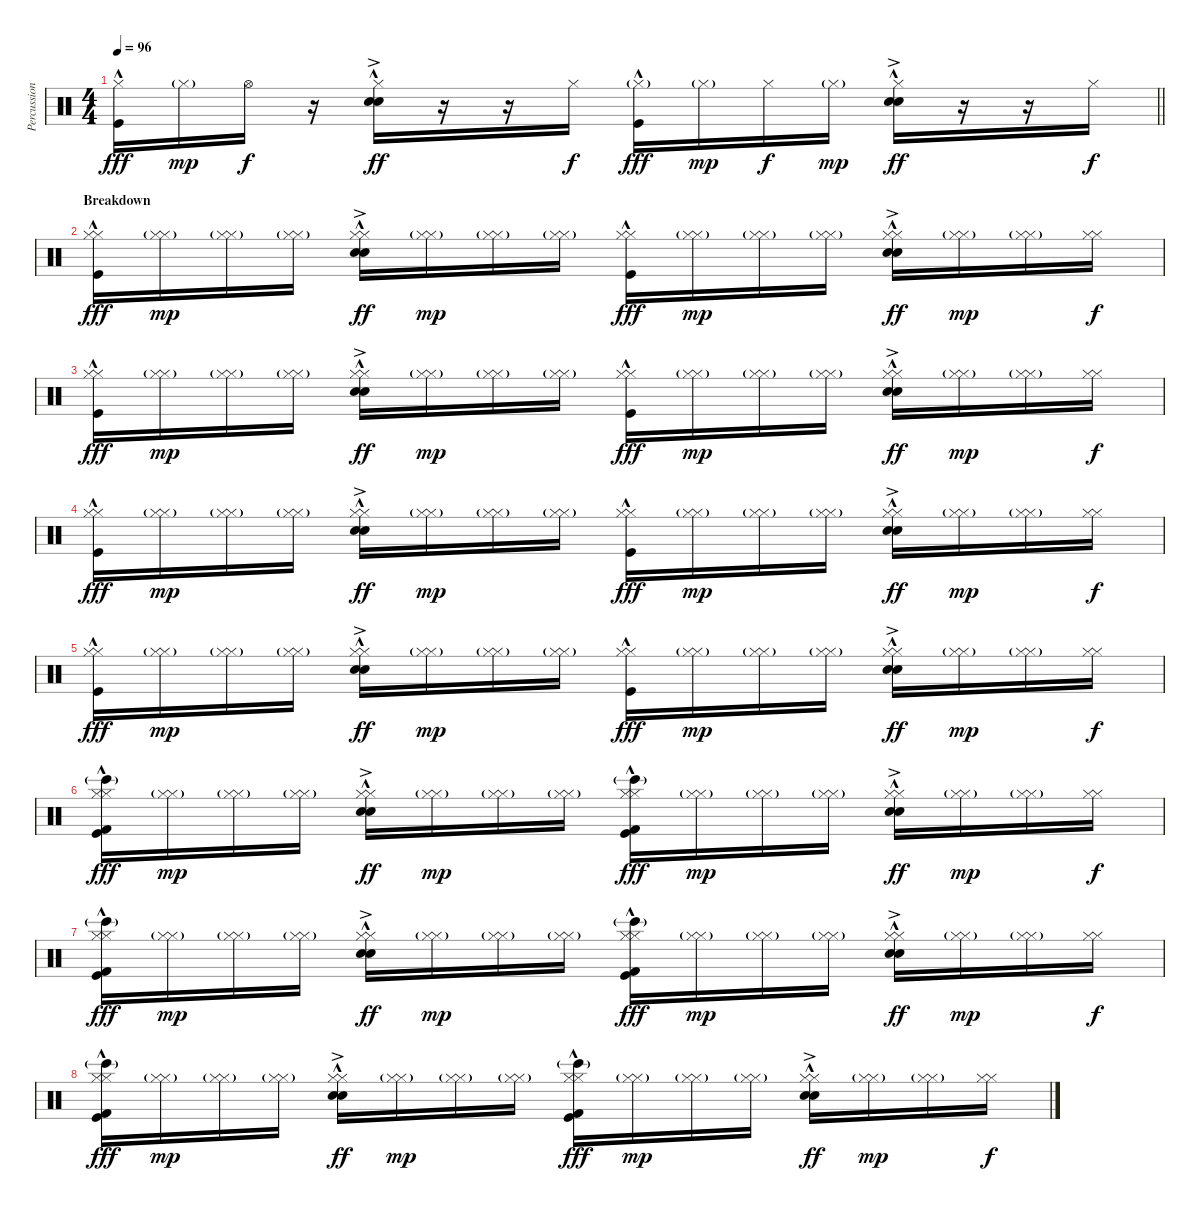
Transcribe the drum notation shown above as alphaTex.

\track ("Percussion" "Percussion") {instrument percussion}
\staff {score}
\articulation defaults
\ts (4 4)
\tempo 96
\clef neutral
\barLineRight lightlight
\ks c
("Hi-Hat (closed)" "Kick (hit)"{hac}).16{dy fff} "Hi-Hat (closed)"{g}.16{dy mp} "Hi-Hat (open)".16{dy f} r.16 ("Hi-Hat (closed)" "Hand Clap (hit)"{hac} "Snare (hit) 2"{ac}).16{dy ff} r.16 r.16 "Hi-Hat (closed)".16{dy f} ("Hi-Hat (closed)"{g} "Kick (hit)"{hac}).16{dy fff} "Hi-Hat (closed)"{g}.16{dy mp} "Hi-Hat (closed)".16{dy f} "Hi-Hat (closed)"{g}.16{dy mp} ("Hi-Hat (closed)" "Hand Clap (hit)"{hac} "Snare (hit) 2"{ac}).16{dy ff} r.16 r.16 "Hi-Hat (closed)".16{dy f} |
\section ("" "Breakdown")
("Hi-Hat (closed)" "Hi-Hat (closed)" "Kick (hit)"{hac}).16{dy fff} ("Hi-Hat (closed)" "Hi-Hat (closed)"{g}).16{dy mp} ("Hi-Hat (closed)" "Hi-Hat (closed)"{g}).16 ("Hi-Hat (closed)" "Hi-Hat (closed)"{g}).16 ("Hi-Hat (closed)" "Hi-Hat (closed)" "Hand Clap (hit)"{hac} "Snare (hit) 2"{ac}).16{dy ff} ("Hi-Hat (closed)" "Hi-Hat (closed)"{g}).16{dy mp} ("Hi-Hat (closed)" "Hi-Hat (closed)"{g}).16 ("Hi-Hat (closed)" "Hi-Hat (closed)"{g}).16 ("Hi-Hat (closed)" "Hi-Hat (closed)" "Kick (hit)"{hac}).16{dy fff} ("Hi-Hat (closed)" "Hi-Hat (closed)"{g}).16{dy mp} ("Hi-Hat (closed)" "Hi-Hat (closed)"{g}).16 ("Hi-Hat (closed)" "Hi-Hat (closed)"{g}).16 ("Hi-Hat (closed)" "Hi-Hat (closed)" "Hand Clap (hit)"{hac} "Snare (hit) 2"{ac}).16{dy ff} ("Hi-Hat (closed)" "Hi-Hat (closed)"{g}).16{dy mp} ("Hi-Hat (closed)" "Hi-Hat (closed)"{g}).16 ("Hi-Hat (closed)" "Hi-Hat (closed)").16{dy f} |
("Hi-Hat (closed)" "Hi-Hat (closed)" "Kick (hit)"{hac}).16{dy fff} ("Hi-Hat (closed)" "Hi-Hat (closed)"{g}).16{dy mp} ("Hi-Hat (closed)" "Hi-Hat (closed)"{g}).16 ("Hi-Hat (closed)" "Hi-Hat (closed)"{g}).16 ("Hi-Hat (closed)" "Hi-Hat (closed)" "Hand Clap (hit)"{hac} "Snare (hit) 2"{ac}).16{dy ff} ("Hi-Hat (closed)" "Hi-Hat (closed)"{g}).16{dy mp} ("Hi-Hat (closed)" "Hi-Hat (closed)"{g}).16 ("Hi-Hat (closed)" "Hi-Hat (closed)"{g}).16 ("Hi-Hat (closed)" "Hi-Hat (closed)" "Kick (hit)"{hac}).16{dy fff} ("Hi-Hat (closed)" "Hi-Hat (closed)"{g}).16{dy mp} ("Hi-Hat (closed)" "Hi-Hat (closed)"{g}).16 ("Hi-Hat (closed)" "Hi-Hat (closed)"{g}).16 ("Hi-Hat (closed)" "Hi-Hat (closed)" "Hand Clap (hit)"{hac} "Snare (hit) 2"{ac}).16{dy ff} ("Hi-Hat (closed)" "Hi-Hat (closed)"{g}).16{dy mp} ("Hi-Hat (closed)" "Hi-Hat (closed)"{g}).16 ("Hi-Hat (closed)" "Hi-Hat (closed)").16{dy f} |
("Hi-Hat (closed)" "Hi-Hat (closed)" "Kick (hit)"{hac}).16{dy fff} ("Hi-Hat (closed)" "Hi-Hat (closed)"{g}).16{dy mp} ("Hi-Hat (closed)" "Hi-Hat (closed)"{g}).16 ("Hi-Hat (closed)" "Hi-Hat (closed)"{g}).16 ("Hi-Hat (closed)" "Hi-Hat (closed)" "Hand Clap (hit)"{hac} "Snare (hit) 2"{ac}).16{dy ff} ("Hi-Hat (closed)" "Hi-Hat (closed)"{g}).16{dy mp} ("Hi-Hat (closed)" "Hi-Hat (closed)"{g}).16 ("Hi-Hat (closed)" "Hi-Hat (closed)"{g}).16 ("Hi-Hat (closed)" "Hi-Hat (closed)" "Kick (hit)"{hac}).16{dy fff} ("Hi-Hat (closed)" "Hi-Hat (closed)"{g}).16{dy mp} ("Hi-Hat (closed)" "Hi-Hat (closed)"{g}).16 ("Hi-Hat (closed)" "Hi-Hat (closed)"{g}).16 ("Hi-Hat (closed)" "Hi-Hat (closed)" "Hand Clap (hit)"{hac} "Snare (hit) 2"{ac}).16{dy ff} ("Hi-Hat (closed)" "Hi-Hat (closed)"{g}).16{dy mp} ("Hi-Hat (closed)" "Hi-Hat (closed)"{g}).16 ("Hi-Hat (closed)" "Hi-Hat (closed)").16{dy f} |
("Hi-Hat (closed)" "Hi-Hat (closed)" "Kick (hit)"{hac}).16{dy fff} ("Hi-Hat (closed)" "Hi-Hat (closed)"{g}).16{dy mp} ("Hi-Hat (closed)" "Hi-Hat (closed)"{g}).16 ("Hi-Hat (closed)" "Hi-Hat (closed)"{g}).16 ("Hi-Hat (closed)" "Hi-Hat (closed)" "Hand Clap (hit)"{hac} "Snare (hit) 2"{ac}).16{dy ff} ("Hi-Hat (closed)" "Hi-Hat (closed)"{g}).16{dy mp} ("Hi-Hat (closed)" "Hi-Hat (closed)"{g}).16 ("Hi-Hat (closed)" "Hi-Hat (closed)"{g}).16 ("Hi-Hat (closed)" "Hi-Hat (closed)" "Kick (hit)"{hac}).16{dy fff} ("Hi-Hat (closed)" "Hi-Hat (closed)"{g}).16{dy mp} ("Hi-Hat (closed)" "Hi-Hat (closed)"{g}).16 ("Hi-Hat (closed)" "Hi-Hat (closed)"{g}).16 ("Hi-Hat (closed)" "Hi-Hat (closed)" "Hand Clap (hit)"{hac} "Snare (hit) 2"{ac}).16{dy ff} ("Hi-Hat (closed)" "Hi-Hat (closed)"{g}).16{dy mp} ("Hi-Hat (closed)" "Hi-Hat (closed)"{g}).16 ("Hi-Hat (closed)" "Hi-Hat (closed)").16{dy f} |
("Hi-Hat (closed)" "Hi-Hat (closed)" "Bongo High (hit)"{g} "Kick (hit) 2"{hac} "Kick (hit)"{hac}).16{dy fff} ("Hi-Hat (closed)" "Hi-Hat (closed)"{g}).16{dy mp} ("Hi-Hat (closed)" "Hi-Hat (closed)"{g}).16 ("Hi-Hat (closed)" "Hi-Hat (closed)"{g}).16 ("Hi-Hat (closed)" "Hi-Hat (closed)" "Hand Clap (hit)"{hac} "Snare (hit) 2"{ac}).16{dy ff} ("Hi-Hat (closed)" "Hi-Hat (closed)"{g}).16{dy mp} ("Hi-Hat (closed)" "Hi-Hat (closed)"{g}).16 ("Hi-Hat (closed)" "Hi-Hat (closed)"{g}).16 ("Hi-Hat (closed)" "Hi-Hat (closed)" "Bongo High (hit)"{g} "Kick (hit) 2"{hac} "Kick (hit)"{hac}).16{dy fff} ("Hi-Hat (closed)" "Hi-Hat (closed)"{g}).16{dy mp} ("Hi-Hat (closed)" "Hi-Hat (closed)"{g}).16 ("Hi-Hat (closed)" "Hi-Hat (closed)"{g}).16 ("Hi-Hat (closed)" "Hi-Hat (closed)" "Hand Clap (hit)"{hac} "Snare (hit) 2"{ac}).16{dy ff} ("Hi-Hat (closed)" "Hi-Hat (closed)"{g}).16{dy mp} ("Hi-Hat (closed)" "Hi-Hat (closed)"{g}).16 ("Hi-Hat (closed)" "Hi-Hat (closed)").16{dy f} |
("Hi-Hat (closed)" "Hi-Hat (closed)" "Bongo High (hit)"{g} "Kick (hit) 2"{hac} "Kick (hit)"{hac}).16{dy fff} ("Hi-Hat (closed)" "Hi-Hat (closed)"{g}).16{dy mp} ("Hi-Hat (closed)" "Hi-Hat (closed)"{g}).16 ("Hi-Hat (closed)" "Hi-Hat (closed)"{g}).16 ("Hi-Hat (closed)" "Hi-Hat (closed)" "Hand Clap (hit)"{hac} "Snare (hit) 2"{ac}).16{dy ff} ("Hi-Hat (closed)" "Hi-Hat (closed)"{g}).16{dy mp} ("Hi-Hat (closed)" "Hi-Hat (closed)"{g}).16 ("Hi-Hat (closed)" "Hi-Hat (closed)"{g}).16 ("Hi-Hat (closed)" "Hi-Hat (closed)" "Bongo High (hit)"{g} "Kick (hit) 2"{hac} "Kick (hit)"{hac}).16{dy fff} ("Hi-Hat (closed)" "Hi-Hat (closed)"{g}).16{dy mp} ("Hi-Hat (closed)" "Hi-Hat (closed)"{g}).16 ("Hi-Hat (closed)" "Hi-Hat (closed)"{g}).16 ("Hi-Hat (closed)" "Hi-Hat (closed)" "Hand Clap (hit)"{hac} "Snare (hit) 2"{ac}).16{dy ff} ("Hi-Hat (closed)" "Hi-Hat (closed)"{g}).16{dy mp} ("Hi-Hat (closed)" "Hi-Hat (closed)"{g}).16 ("Hi-Hat (closed)" "Hi-Hat (closed)").16{dy f} |
("Hi-Hat (closed)" "Hi-Hat (closed)" "Bongo High (hit)"{g} "Kick (hit) 2"{hac} "Kick (hit)"{hac}).16{dy fff} ("Hi-Hat (closed)" "Hi-Hat (closed)"{g}).16{dy mp} ("Hi-Hat (closed)" "Hi-Hat (closed)"{g}).16 ("Hi-Hat (closed)" "Hi-Hat (closed)"{g}).16 ("Hi-Hat (closed)" "Hi-Hat (closed)" "Hand Clap (hit)"{hac} "Snare (hit) 2"{ac}).16{dy ff} ("Hi-Hat (closed)" "Hi-Hat (closed)"{g}).16{dy mp} ("Hi-Hat (closed)" "Hi-Hat (closed)"{g}).16 ("Hi-Hat (closed)" "Hi-Hat (closed)"{g}).16 ("Hi-Hat (closed)" "Hi-Hat (closed)" "Bongo High (hit)"{g} "Kick (hit) 2"{hac} "Kick (hit)"{hac}).16{dy fff} ("Hi-Hat (closed)" "Hi-Hat (closed)"{g}).16{dy mp} ("Hi-Hat (closed)" "Hi-Hat (closed)"{g}).16 ("Hi-Hat (closed)" "Hi-Hat (closed)"{g}).16 ("Hi-Hat (closed)" "Hi-Hat (closed)" "Hand Clap (hit)"{hac} "Snare (hit) 2"{ac}).16{dy ff} ("Hi-Hat (closed)" "Hi-Hat (closed)"{g}).16{dy mp} ("Hi-Hat (closed)" "Hi-Hat (closed)"{g}).16 ("Hi-Hat (closed)" "Hi-Hat (closed)").16{dy f}
